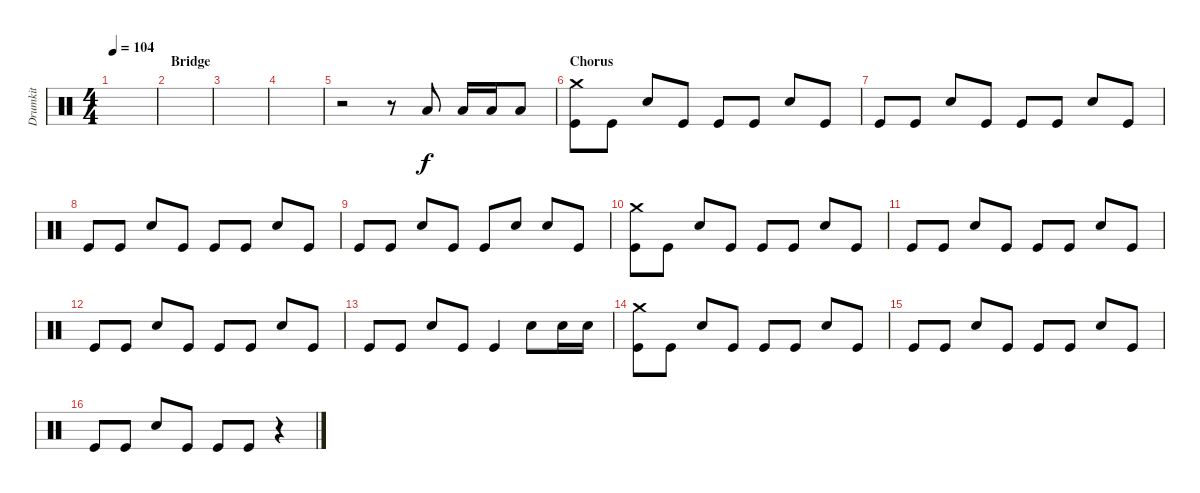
\track ("Drumkit" "Drumkit") {instrument percussion}
\staff {score}
\articulation defaults
\ts (4 4)
\tempo 104
\clef neutral
\ks c
|
\section ("" "Bridge")
|
|
|
r.2 r.8 "Low Floor Tom (hit)".8 "Low Floor Tom (hit)".16 "Low Floor Tom (hit)".16 "Low Floor Tom (hit)".8 |
\section ("" "Chorus")
("Crash medium (hit)" "Kick (hit)").8 "Kick (hit)".8 "Snare (hit) 2".8 "Kick (hit)".8 "Kick (hit)".8 "Kick (hit)".8 "Snare (hit) 2".8 "Kick (hit)".8 |
"Kick (hit)".8 "Kick (hit)".8 "Snare (hit) 2".8 "Kick (hit)".8 "Kick (hit)".8 "Kick (hit)".8 "Snare (hit) 2".8 "Kick (hit)".8 |
"Kick (hit)".8 "Kick (hit)".8 "Snare (hit) 2".8 "Kick (hit)".8 "Kick (hit)".8 "Kick (hit)".8 "Snare (hit) 2".8 "Kick (hit)".8 |
"Kick (hit)".8 "Kick (hit)".8 "Snare (hit) 2".8 "Kick (hit)".8 "Kick (hit)".8 "Snare (hit) 2".8 "Snare (hit) 2".8 "Kick (hit)".8 |
("Crash medium (hit)" "Kick (hit)").8 "Kick (hit)".8 "Snare (hit) 2".8 "Kick (hit)".8 "Kick (hit)".8 "Kick (hit)".8 "Snare (hit) 2".8 "Kick (hit)".8 |
"Kick (hit)".8 "Kick (hit)".8 "Snare (hit) 2".8 "Kick (hit)".8 "Kick (hit)".8 "Kick (hit)".8 "Snare (hit) 2".8 "Kick (hit)".8 |
"Kick (hit)".8 "Kick (hit)".8 "Snare (hit) 2".8 "Kick (hit)".8 "Kick (hit)".8 "Kick (hit)".8 "Snare (hit) 2".8 "Kick (hit)".8 |
"Kick (hit)".8 "Kick (hit)".8 "Snare (hit) 2".8 "Kick (hit)".8 "Kick (hit)".4 "Snare (hit) 2".8 "Snare (hit) 2".16 "Snare (hit) 2".16 |
("Crash medium (hit)" "Kick (hit)").8 "Kick (hit)".8 "Snare (hit) 2".8 "Kick (hit)".8 "Kick (hit)".8 "Kick (hit)".8 "Snare (hit) 2".8 "Kick (hit)".8 |
"Kick (hit)".8 "Kick (hit)".8 "Snare (hit) 2".8 "Kick (hit)".8 "Kick (hit)".8 "Kick (hit)".8 "Snare (hit) 2".8 "Kick (hit)".8 |
"Kick (hit)".8 "Kick (hit)".8 "Snare (hit) 2".8 "Kick (hit)".8 "Kick (hit)".8 "Kick (hit)".8 r.4
